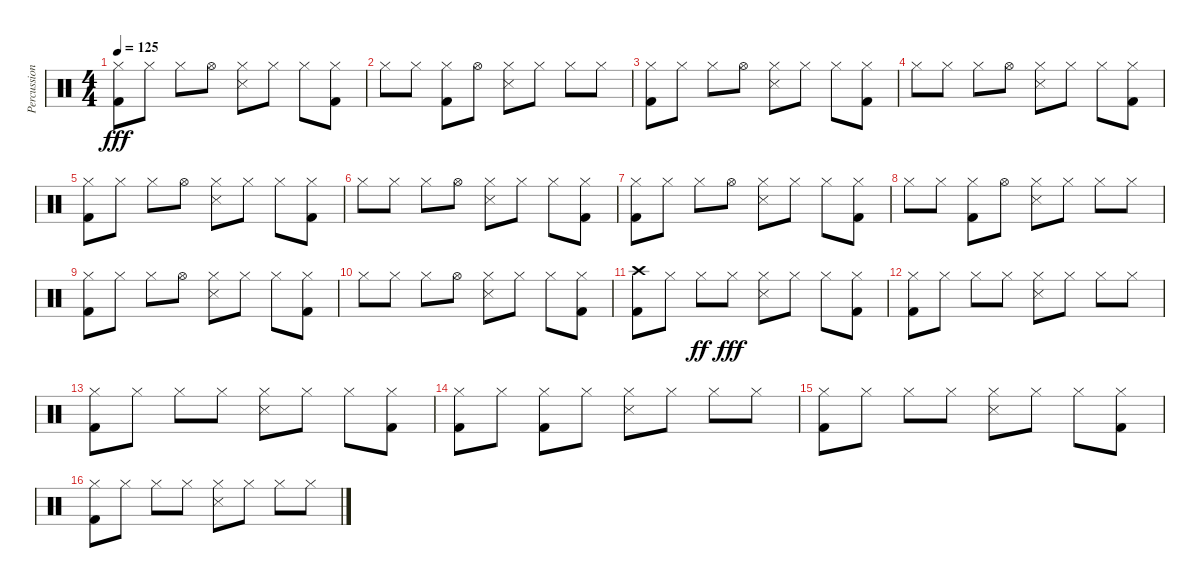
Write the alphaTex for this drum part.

\track ("Percussion" "Percussion") {instrument percussion}
\staff {score}
\articulation defaults
\ts (4 4)
\tempo 125
\clef neutral
\ks c
("Hi-Hat (closed)" "Kick (hit) 2").8{dy fff} "Hi-Hat (closed)".8 "Hi-Hat (closed)".8 "Hi-Hat (open)".8 ("Hi-Hat (closed)" "Snare (side stick) 3").8 "Hi-Hat (closed)".8 "Hi-Hat (closed)".8 ("Hi-Hat (closed)" "Kick (hit) 2").8 |
"Hi-Hat (closed)".8 "Hi-Hat (closed)".8 ("Hi-Hat (closed)" "Kick (hit) 2").8 "Hi-Hat (open)".8 ("Hi-Hat (closed)" "Snare (side stick) 3").8 "Hi-Hat (closed)".8 "Hi-Hat (closed)".8 "Hi-Hat (closed)".8 |
("Hi-Hat (closed)" "Kick (hit) 2").8 "Hi-Hat (closed)".8 "Hi-Hat (closed)".8 "Hi-Hat (open)".8 ("Hi-Hat (closed)" "Snare (side stick) 3").8 "Hi-Hat (closed)".8 "Hi-Hat (closed)".8 ("Hi-Hat (closed)" "Kick (hit) 2").8 |
"Hi-Hat (closed)".8 "Hi-Hat (closed)".8 "Hi-Hat (closed)".8 "Hi-Hat (open)".8 ("Hi-Hat (closed)" "Snare (side stick) 3").8 "Hi-Hat (closed)".8 "Hi-Hat (closed)".8 ("Hi-Hat (closed)" "Kick (hit) 2").8 |
("Hi-Hat (closed)" "Kick (hit) 2").8 "Hi-Hat (closed)".8 "Hi-Hat (closed)".8 "Hi-Hat (open)".8 ("Hi-Hat (closed)" "Snare (side stick) 3").8 "Hi-Hat (closed)".8 "Hi-Hat (closed)".8 ("Hi-Hat (closed)" "Kick (hit) 2").8 |
"Hi-Hat (closed)".8 "Hi-Hat (closed)".8 "Hi-Hat (closed)".8 "Hi-Hat (open)".8 ("Hi-Hat (closed)" "Snare (side stick) 3").8 "Hi-Hat (closed)".8 "Hi-Hat (closed)".8 ("Hi-Hat (closed)" "Kick (hit) 2").8 |
("Hi-Hat (closed)" "Kick (hit) 2").8 "Hi-Hat (closed)".8 "Hi-Hat (closed)".8 "Hi-Hat (open)".8 ("Hi-Hat (closed)" "Snare (side stick) 3").8 "Hi-Hat (closed)".8 "Hi-Hat (closed)".8 ("Hi-Hat (closed)" "Kick (hit) 2").8 |
"Hi-Hat (closed)".8 "Hi-Hat (closed)".8 ("Hi-Hat (closed)" "Kick (hit) 2").8 "Hi-Hat (open)".8 ("Hi-Hat (closed)" "Snare (side stick) 3").8 "Hi-Hat (closed)".8 "Hi-Hat (closed)".8 "Hi-Hat (closed)".8 |
("Hi-Hat (closed)" "Kick (hit) 2").8 "Hi-Hat (closed)".8 "Hi-Hat (closed)".8 "Hi-Hat (open)".8 ("Hi-Hat (closed)" "Snare (side stick) 3").8 "Hi-Hat (closed)".8 "Hi-Hat (closed)".8 ("Hi-Hat (closed)" "Kick (hit) 2").8 |
"Hi-Hat (closed)".8 "Hi-Hat (closed)".8 "Hi-Hat (closed)".8 "Hi-Hat (open)".8 ("Hi-Hat (closed)" "Snare (side stick) 3").8 "Hi-Hat (closed)".8 "Hi-Hat (closed)".8 ("Hi-Hat (closed)" "Kick (hit) 2").8 |
("Kick (hit) 2" "Crash high (hit)").8 "Hi-Hat (closed)".8 "Hi-Hat (closed)".8{dy ff} "Hi-Hat (closed)".8{dy fff} ("Snare (side stick) 3" "Hi-Hat (closed)").8 "Hi-Hat (closed)".8 "Hi-Hat (closed)".8 ("Kick (hit) 2" "Hi-Hat (closed)").8 |
("Kick (hit) 2" "Hi-Hat (closed)").8 "Hi-Hat (closed)".8 "Hi-Hat (closed)".8 "Hi-Hat (closed)".8 ("Snare (side stick) 3" "Hi-Hat (closed)").8 "Hi-Hat (closed)".8 "Hi-Hat (closed)".8 "Hi-Hat (closed)".8 |
("Kick (hit) 2" "Hi-Hat (closed)").8 "Hi-Hat (closed)".8 "Hi-Hat (closed)".8 "Hi-Hat (closed)".8 ("Snare (side stick) 3" "Hi-Hat (closed)").8 "Hi-Hat (closed)".8 "Hi-Hat (closed)".8 ("Kick (hit) 2" "Hi-Hat (closed)").8 |
("Kick (hit) 2" "Hi-Hat (closed)").8 "Hi-Hat (closed)".8 ("Kick (hit) 2" "Hi-Hat (closed)").8 "Hi-Hat (closed)".8 ("Snare (side stick) 3" "Hi-Hat (closed)").8 "Hi-Hat (closed)".8 "Hi-Hat (closed)".8 "Hi-Hat (closed)".8 |
("Kick (hit) 2" "Hi-Hat (closed)").8 "Hi-Hat (closed)".8 "Hi-Hat (closed)".8 "Hi-Hat (closed)".8 ("Snare (side stick) 3" "Hi-Hat (closed)").8 "Hi-Hat (closed)".8 "Hi-Hat (closed)".8 ("Kick (hit) 2" "Hi-Hat (closed)").8 |
("Kick (hit) 2" "Hi-Hat (closed)").8 "Hi-Hat (closed)".8 "Hi-Hat (closed)".8 "Hi-Hat (closed)".8 ("Snare (side stick) 3" "Hi-Hat (closed)").8 "Hi-Hat (closed)".8 "Hi-Hat (closed)".8 "Hi-Hat (closed)".8
